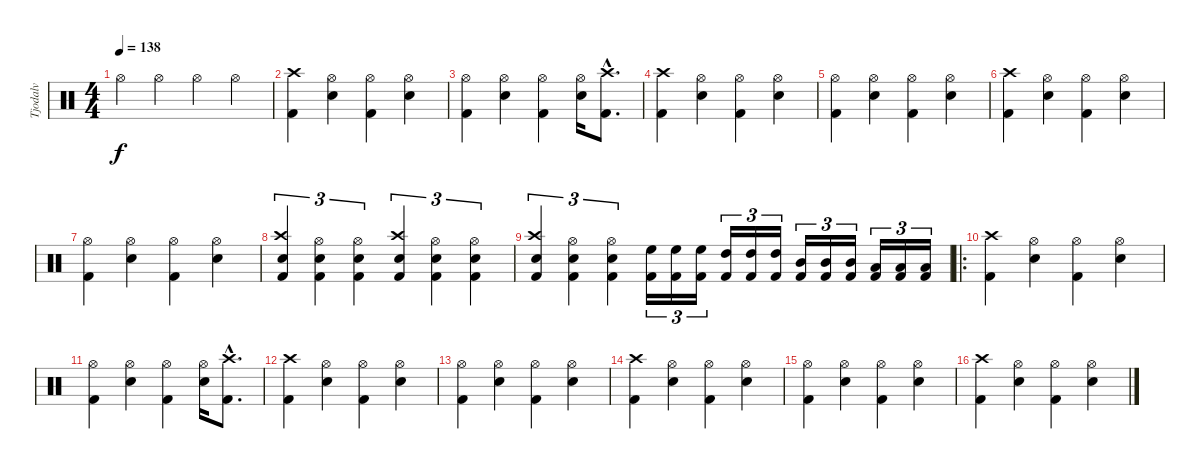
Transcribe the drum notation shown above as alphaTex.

\track ("Tjodalv" "Tjodalv") {instrument percussion}
\staff {score}
\articulation defaults
\ts (4 4)
\tempo 138
\tempo 148
\tempo 138
\clef neutral
\ks c "Hi-Hat (open)".4{dy f} "Hi-Hat (open)".4 "Hi-Hat (open)".4 "Hi-Hat (open)".4
|
("Kick (hit) 2" "Crash high (hit)").4 ("Snare (hit) 2" "Hi-Hat (open)").4 ("Kick (hit) 2" "Hi-Hat (open)").4 ("Snare (hit) 2" "Hi-Hat (open)").4 |
("Kick (hit) 2" "Hi-Hat (open)").4 ("Snare (hit) 2" "Hi-Hat (open)").4 ("Kick (hit) 2" "Hi-Hat (open)").4 ("Snare (hit) 2" "Hi-Hat (open)").16 ("Kick (hit) 2"{hac} "Crash high (hit)"{hac}).8{d} |
("Kick (hit) 2" "Crash high (hit)").4 ("Snare (hit) 2" "Hi-Hat (open)").4 ("Kick (hit) 2" "Hi-Hat (open)").4 ("Snare (hit) 2" "Hi-Hat (open)").4 |
("Kick (hit) 2" "Hi-Hat (open)").4 ("Snare (hit) 2" "Hi-Hat (open)").4 ("Kick (hit) 2" "Hi-Hat (open)").4 ("Snare (hit) 2" "Hi-Hat (open)").4 |
("Kick (hit) 2" "Crash high (hit)").4 ("Snare (hit) 2" "Hi-Hat (open)").4 ("Kick (hit) 2" "Hi-Hat (open)").4 ("Snare (hit) 2" "Hi-Hat (open)").4 |
("Kick (hit) 2" "Hi-Hat (open)").4 ("Snare (hit) 2" "Hi-Hat (open)").4 ("Kick (hit) 2" "Hi-Hat (open)").4 ("Snare (hit) 2" "Hi-Hat (open)").4 |
("Kick (hit) 2" "Snare (hit) 2" "Crash high (hit)").4{tu (3 2)} ("Kick (hit) 2" "Snare (hit) 2" "Hi-Hat (open)").4{tu (3 2)} ("Kick (hit) 2" "Snare (hit) 2" "Hi-Hat (open)").4{tu (3 2)} ("Kick (hit) 2" "Snare (hit) 2" "Crash high (hit)").4{tu (3 2)} ("Kick (hit) 2" "Snare (hit) 2" "Hi-Hat (open)").4{tu (3 2)} ("Kick (hit) 2" "Snare (hit) 2" "Hi-Hat (open)").4{tu (3 2)} |
("Kick (hit) 2" "Snare (hit) 2" "Crash high (hit)").4{tu (3 2)} ("Kick (hit) 2" "Snare (hit) 2" "Hi-Hat (open)").4{tu (3 2)} ("Kick (hit) 2" "Snare (hit) 2" "Hi-Hat (open)").4{tu (3 2)} ("Kick (hit) 2" "High Floor Tom (hit)").16{tu (3 2)} ("Kick (hit) 2" "High Floor Tom (hit)").16{tu (3 2)} ("Kick (hit) 2" "High Floor Tom (hit)").16{tu (3 2)} ("Kick (hit) 2" "High Tom (hit)").16{tu (3 2)} ("Kick (hit) 2" "High Tom (hit)").16{tu (3 2)} ("Kick (hit) 2" "High Tom (hit)").16{tu (3 2)} ("Kick (hit) 2" "Mid Tom (hit)").16{tu (3 2)} ("Kick (hit) 2" "Mid Tom (hit)").16{tu (3 2)} ("Kick (hit) 2" "Mid Tom (hit)").16{tu (3 2)} ("Kick (hit) 2" "Low Tom (hit)").16{tu (3 2)} ("Kick (hit) 2" "Low Tom (hit)").16{tu (3 2)} ("Kick (hit) 2" "Low Tom (hit)").16{tu (3 2)} |
\ro
("Kick (hit) 2" "Crash high (hit)").4 ("Snare (hit) 2" "Hi-Hat (open)").4 ("Kick (hit) 2" "Hi-Hat (open)").4 ("Snare (hit) 2" "Hi-Hat (open)").4 |
("Kick (hit) 2" "Hi-Hat (open)").4 ("Snare (hit) 2" "Hi-Hat (open)").4 ("Kick (hit) 2" "Hi-Hat (open)").4 ("Snare (hit) 2" "Hi-Hat (open)").16 ("Kick (hit) 2"{hac} "Crash high (hit)"{hac}).8{d} |
("Kick (hit) 2" "Crash high (hit)").4 ("Snare (hit) 2" "Hi-Hat (open)").4 ("Kick (hit) 2" "Hi-Hat (open)").4 ("Snare (hit) 2" "Hi-Hat (open)").4 |
("Kick (hit) 2" "Hi-Hat (open)").4 ("Snare (hit) 2" "Hi-Hat (open)").4 ("Kick (hit) 2" "Hi-Hat (open)").4 ("Snare (hit) 2" "Hi-Hat (open)").4 |
("Kick (hit) 2" "Crash high (hit)").4 ("Snare (hit) 2" "Hi-Hat (open)").4 ("Kick (hit) 2" "Hi-Hat (open)").4 ("Snare (hit) 2" "Hi-Hat (open)").4 |
("Kick (hit) 2" "Hi-Hat (open)").4 ("Snare (hit) 2" "Hi-Hat (open)").4 ("Kick (hit) 2" "Hi-Hat (open)").4 ("Snare (hit) 2" "Hi-Hat (open)").4 |
("Kick (hit) 2" "Crash high (hit)").4 ("Snare (hit) 2" "Hi-Hat (open)").4 ("Kick (hit) 2" "Hi-Hat (open)").4 ("Snare (hit) 2" "Hi-Hat (open)").4
